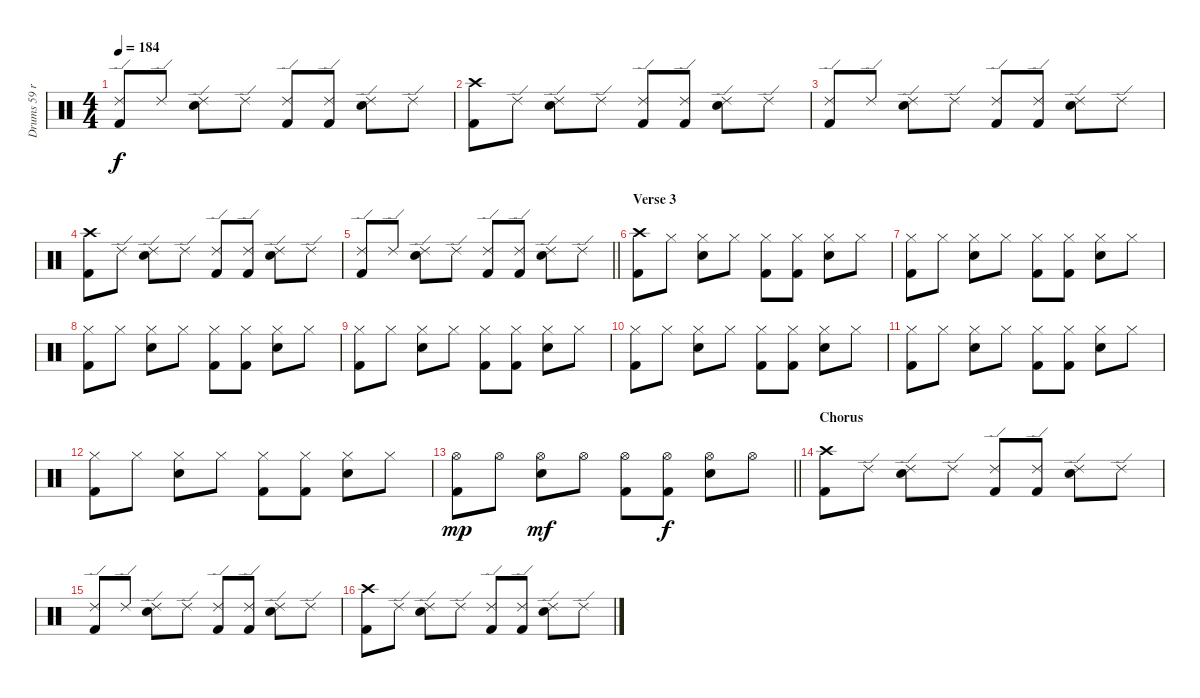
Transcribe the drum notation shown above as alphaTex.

\track ("Drums 59 ride" "Drums 59 r") {mute instrument percussion}
\staff {score}
\articulation defaults
\ts (4 4)
\tempo 184
\clef neutral
\ks c
("Ride (edge) 2" "Kick (hit) 2").8{dy f} "Ride (edge) 2".8 ("Ride (edge) 2" "Snare (hit) 2").8 "Ride (edge) 2".8 ("Ride (edge) 2" "Kick (hit) 2").8 ("Ride (edge) 2" "Kick (hit) 2").8 ("Ride (edge) 2" "Snare (hit) 2").8 "Ride (edge) 2".8 |
("Crash high (hit)" "Kick (hit) 2").8 "Ride (edge) 2".8 ("Ride (edge) 2" "Snare (hit) 2").8 "Ride (edge) 2".8 ("Ride (edge) 2" "Kick (hit) 2").8 ("Ride (edge) 2" "Kick (hit) 2").8 ("Ride (edge) 2" "Snare (hit) 2").8 "Ride (edge) 2".8 |
("Ride (edge) 2" "Kick (hit) 2").8 "Ride (edge) 2".8 ("Ride (edge) 2" "Snare (hit) 2").8 "Ride (edge) 2".8 ("Ride (edge) 2" "Kick (hit) 2").8 ("Ride (edge) 2" "Kick (hit) 2").8 ("Ride (edge) 2" "Snare (hit) 2").8 "Ride (edge) 2".8 |
("Crash high (hit)" "Kick (hit) 2").8 "Ride (edge) 2".8 ("Ride (edge) 2" "Snare (hit) 2").8 "Ride (edge) 2".8 ("Ride (edge) 2" "Kick (hit) 2").8 ("Ride (edge) 2" "Kick (hit) 2").8 ("Ride (edge) 2" "Snare (hit) 2").8 "Ride (edge) 2".8 |
\barLineRight lightlight
("Ride (edge) 2" "Kick (hit) 2").8 "Ride (edge) 2".8 ("Ride (edge) 2" "Snare (hit) 2").8 "Ride (edge) 2".8 ("Ride (edge) 2" "Kick (hit) 2").8 ("Ride (edge) 2" "Kick (hit) 2").8 ("Ride (edge) 2" "Snare (hit) 2").8 "Ride (edge) 2".8 |
\section ("" "Verse 3")
("Crash high (hit)" "Kick (hit) 2").8 "Hi-Hat (closed)".8 ("Hi-Hat (closed)" "Snare (hit) 2").8 "Hi-Hat (closed)".8 ("Hi-Hat (closed)" "Kick (hit) 2").8 ("Hi-Hat (closed)" "Kick (hit) 2").8 ("Hi-Hat (closed)" "Snare (hit) 2").8 "Hi-Hat (closed)".8 |
("Hi-Hat (closed)" "Kick (hit) 2").8 "Hi-Hat (closed)".8 ("Hi-Hat (closed)" "Snare (hit) 2").8 "Hi-Hat (closed)".8 ("Hi-Hat (closed)" "Kick (hit) 2").8 ("Hi-Hat (closed)" "Kick (hit) 2").8 ("Hi-Hat (closed)" "Snare (hit) 2").8 "Hi-Hat (closed)".8 |
("Hi-Hat (closed)" "Kick (hit) 2").8 "Hi-Hat (closed)".8 ("Hi-Hat (closed)" "Snare (hit) 2").8 "Hi-Hat (closed)".8 ("Hi-Hat (closed)" "Kick (hit) 2").8 ("Hi-Hat (closed)" "Kick (hit) 2").8 ("Hi-Hat (closed)" "Snare (hit) 2").8 "Hi-Hat (closed)".8 |
("Hi-Hat (closed)" "Kick (hit) 2").8 "Hi-Hat (closed)".8 ("Hi-Hat (closed)" "Snare (hit) 2").8 "Hi-Hat (closed)".8 ("Hi-Hat (closed)" "Kick (hit) 2").8 ("Hi-Hat (closed)" "Kick (hit) 2").8 ("Hi-Hat (closed)" "Snare (hit) 2").8 "Hi-Hat (closed)".8 |
("Hi-Hat (closed)" "Kick (hit) 2").8 "Hi-Hat (closed)".8 ("Hi-Hat (closed)" "Snare (hit) 2").8 "Hi-Hat (closed)".8 ("Hi-Hat (closed)" "Kick (hit) 2").8 ("Hi-Hat (closed)" "Kick (hit) 2").8 ("Hi-Hat (closed)" "Snare (hit) 2").8 "Hi-Hat (closed)".8 |
("Hi-Hat (closed)" "Kick (hit) 2").8 "Hi-Hat (closed)".8 ("Hi-Hat (closed)" "Snare (hit) 2").8 "Hi-Hat (closed)".8 ("Hi-Hat (closed)" "Kick (hit) 2").8 ("Hi-Hat (closed)" "Kick (hit) 2").8 ("Hi-Hat (closed)" "Snare (hit) 2").8 "Hi-Hat (closed)".8 |
("Hi-Hat (closed)" "Kick (hit) 2").8 "Hi-Hat (closed)".8 ("Hi-Hat (closed)" "Snare (hit) 2").8 "Hi-Hat (closed)".8 ("Hi-Hat (closed)" "Kick (hit) 2").8 ("Hi-Hat (closed)" "Kick (hit) 2").8 ("Hi-Hat (closed)" "Snare (hit) 2").8 "Hi-Hat (closed)".8 |
\barLineRight lightlight
("Hi-Hat (open)" "Kick (hit) 2").8{dy mp} "Hi-Hat (open)".8 ("Hi-Hat (open)" "Snare (hit) 2").8{dy mf} "Hi-Hat (open)".8 ("Hi-Hat (open)" "Kick (hit) 2").8 ("Hi-Hat (open)" "Kick (hit) 2").8{dy f} ("Hi-Hat (open)" "Snare (hit) 2").8 "Hi-Hat (open)".8 |
\section ("" "Chorus")
("Crash high (hit)" "Kick (hit) 2").8 "Ride (edge) 2".8 ("Ride (edge) 2" "Snare (hit) 2").8 "Ride (edge) 2".8 ("Ride (edge) 2" "Kick (hit) 2").8 ("Ride (edge) 2" "Kick (hit) 2").8 ("Ride (edge) 2" "Snare (hit) 2").8 "Ride (edge) 2".8 |
("Ride (edge) 2" "Kick (hit) 2").8 "Ride (edge) 2".8 ("Ride (edge) 2" "Snare (hit) 2").8 "Ride (edge) 2".8 ("Ride (edge) 2" "Kick (hit) 2").8 ("Ride (edge) 2" "Kick (hit) 2").8 ("Ride (edge) 2" "Snare (hit) 2").8 "Ride (edge) 2".8 |
("Crash high (hit)" "Kick (hit) 2").8 "Ride (edge) 2".8 ("Ride (edge) 2" "Snare (hit) 2").8 "Ride (edge) 2".8 ("Ride (edge) 2" "Kick (hit) 2").8 ("Ride (edge) 2" "Kick (hit) 2").8 ("Ride (edge) 2" "Snare (hit) 2").8 "Ride (edge) 2".8
